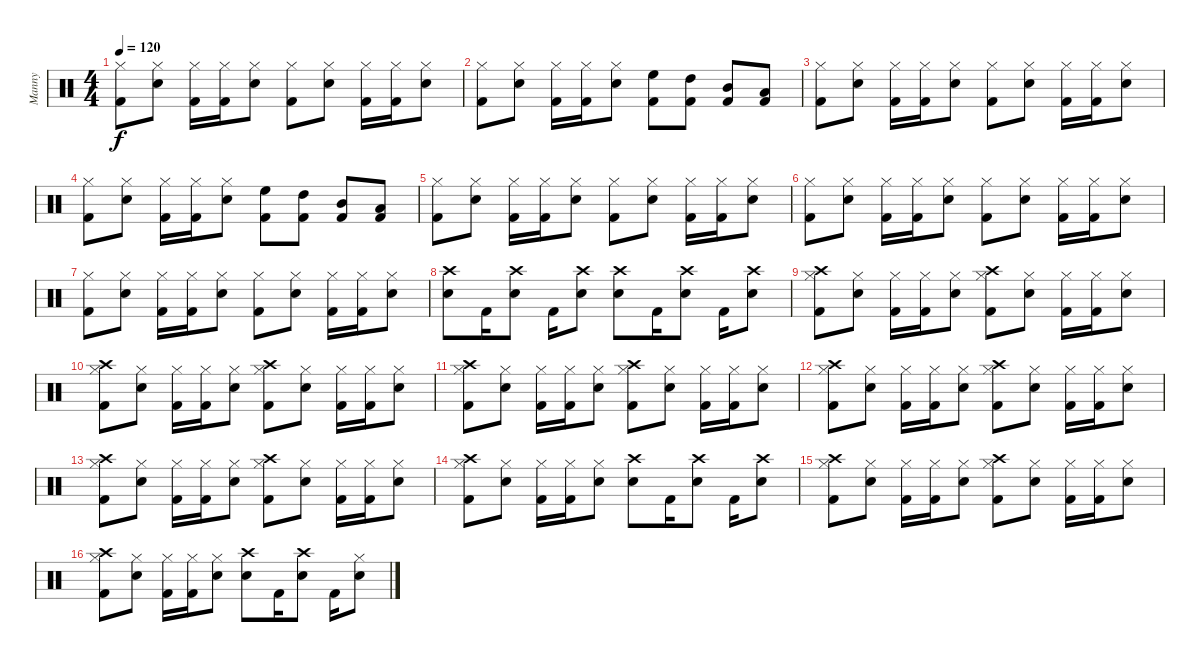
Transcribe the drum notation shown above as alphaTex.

\track ("Manny" "Manny") {instrument percussion}
\staff {score}
\articulation defaults
\ts (4 4)
\tempo 120
\clef neutral
\ks c
("Kick (hit) 2" "Hi-Hat (closed)").8{dy f} ("Snare (hit) 2" "Hi-Hat (closed)").8 ("Kick (hit) 2" "Hi-Hat (closed)").16 ("Kick (hit) 2" "Hi-Hat (closed)").16 ("Snare (hit) 2" "Hi-Hat (closed)").8 ("Kick (hit) 2" "Hi-Hat (closed)").8 ("Snare (hit) 2" "Hi-Hat (closed)").8 ("Kick (hit) 2" "Hi-Hat (closed)").16 ("Kick (hit) 2" "Hi-Hat (closed)").16 ("Snare (hit) 2" "Hi-Hat (closed)").8 |
("Kick (hit) 2" "Hi-Hat (closed)").8 ("Snare (hit) 2" "Hi-Hat (closed)").8 ("Kick (hit) 2" "Hi-Hat (closed)").16 ("Kick (hit) 2" "Hi-Hat (closed)").16 ("Snare (hit) 2" "Hi-Hat (closed)").8 ("Kick (hit) 2" "High Floor Tom (hit)").8 ("Kick (hit) 2" "High Tom (hit)").8 ("Kick (hit) 2" "Mid Tom (hit)").8 ("Kick (hit) 2" "Low Tom (hit)").8 |
("Kick (hit) 2" "Hi-Hat (closed)").8 ("Snare (hit) 2" "Hi-Hat (closed)").8 ("Kick (hit) 2" "Hi-Hat (closed)").16 ("Kick (hit) 2" "Hi-Hat (closed)").16 ("Snare (hit) 2" "Hi-Hat (closed)").8 ("Kick (hit) 2" "Hi-Hat (closed)").8 ("Snare (hit) 2" "Hi-Hat (closed)").8 ("Kick (hit) 2" "Hi-Hat (closed)").16 ("Kick (hit) 2" "Hi-Hat (closed)").16 ("Snare (hit) 2" "Hi-Hat (closed)").8 |
("Kick (hit) 2" "Hi-Hat (closed)").8 ("Snare (hit) 2" "Hi-Hat (closed)").8 ("Kick (hit) 2" "Hi-Hat (closed)").16 ("Kick (hit) 2" "Hi-Hat (closed)").16 ("Snare (hit) 2" "Hi-Hat (closed)").8 ("Kick (hit) 2" "High Floor Tom (hit)").8 ("Kick (hit) 2" "High Tom (hit)").8 ("Kick (hit) 2" "Mid Tom (hit)").8 ("Kick (hit) 2" "Low Tom (hit)").8 |
("Kick (hit) 2" "Hi-Hat (closed)").8 ("Snare (hit) 2" "Hi-Hat (closed)").8 ("Kick (hit) 2" "Hi-Hat (closed)").16 ("Kick (hit) 2" "Hi-Hat (closed)").16 ("Snare (hit) 2" "Hi-Hat (closed)").8 ("Kick (hit) 2" "Hi-Hat (closed)").8 ("Snare (hit) 2" "Hi-Hat (closed)").8 ("Kick (hit) 2" "Hi-Hat (closed)").16 ("Kick (hit) 2" "Hi-Hat (closed)").16 ("Snare (hit) 2" "Hi-Hat (closed)").8 |
("Kick (hit) 2" "Hi-Hat (closed)").8 ("Snare (hit) 2" "Hi-Hat (closed)").8 ("Kick (hit) 2" "Hi-Hat (closed)").16 ("Kick (hit) 2" "Hi-Hat (closed)").16 ("Snare (hit) 2" "Hi-Hat (closed)").8 ("Kick (hit) 2" "Hi-Hat (closed)").8 ("Snare (hit) 2" "Hi-Hat (closed)").8 ("Kick (hit) 2" "Hi-Hat (closed)").16 ("Kick (hit) 2" "Hi-Hat (closed)").16 ("Snare (hit) 2" "Hi-Hat (closed)").8 |
("Kick (hit) 2" "Hi-Hat (closed)").8 ("Snare (hit) 2" "Hi-Hat (closed)").8 ("Kick (hit) 2" "Hi-Hat (closed)").16 ("Kick (hit) 2" "Hi-Hat (closed)").16 ("Snare (hit) 2" "Hi-Hat (closed)").8 ("Kick (hit) 2" "Hi-Hat (closed)").8 ("Snare (hit) 2" "Hi-Hat (closed)").8 ("Kick (hit) 2" "Hi-Hat (closed)").16 ("Kick (hit) 2" "Hi-Hat (closed)").16 ("Snare (hit) 2" "Hi-Hat (closed)").8 |
("Snare (hit) 2" "Crash high (hit)").8 "Kick (hit) 2".16 ("Snare (hit) 2" "Crash high (hit)").8 "Kick (hit) 2".16 ("Snare (hit) 2" "Crash high (hit)").8 ("Snare (hit) 2" "Crash high (hit)").8 "Kick (hit) 2".16 ("Snare (hit) 2" "Crash high (hit)").8 "Kick (hit) 2".16 ("Snare (hit) 2" "Crash high (hit)").8 |
("Kick (hit) 2" "Crash high (hit)" "Hi-Hat (closed)").8 ("Snare (hit) 2" "Hi-Hat (closed)").8 ("Kick (hit) 2" "Hi-Hat (closed)").16 ("Kick (hit) 2" "Hi-Hat (closed)").16 ("Snare (hit) 2" "Hi-Hat (closed)").8 ("Kick (hit) 2" "Crash high (hit)" "Hi-Hat (closed)").8 ("Snare (hit) 2" "Hi-Hat (closed)").8 ("Kick (hit) 2" "Hi-Hat (closed)").16 ("Kick (hit) 2" "Hi-Hat (closed)").16 ("Snare (hit) 2" "Hi-Hat (closed)").8 |
("Kick (hit) 2" "Hi-Hat (closed)" "Crash high (hit)").8 ("Snare (hit) 2" "Hi-Hat (closed)").8 ("Kick (hit) 2" "Hi-Hat (closed)").16 ("Kick (hit) 2" "Hi-Hat (closed)").16 ("Snare (hit) 2" "Hi-Hat (closed)").8 ("Kick (hit) 2" "Hi-Hat (closed)" "Crash high (hit)").8 ("Snare (hit) 2" "Hi-Hat (closed)").8 ("Kick (hit) 2" "Hi-Hat (closed)").16 ("Kick (hit) 2" "Hi-Hat (closed)").16 ("Snare (hit) 2" "Hi-Hat (closed)").8 |
("Kick (hit) 2" "Crash high (hit)" "Hi-Hat (closed)").8 ("Snare (hit) 2" "Hi-Hat (closed)").8 ("Kick (hit) 2" "Hi-Hat (closed)").16 ("Kick (hit) 2" "Hi-Hat (closed)").16 ("Snare (hit) 2" "Hi-Hat (closed)").8 ("Kick (hit) 2" "Crash high (hit)" "Hi-Hat (closed)").8 ("Snare (hit) 2" "Hi-Hat (closed)").8 ("Kick (hit) 2" "Hi-Hat (closed)").16 ("Kick (hit) 2" "Hi-Hat (closed)").16 ("Snare (hit) 2" "Hi-Hat (closed)").8 |
("Kick (hit) 2" "Crash high (hit)" "Hi-Hat (closed)").8 ("Snare (hit) 2" "Hi-Hat (closed)").8 ("Kick (hit) 2" "Hi-Hat (closed)").16 ("Kick (hit) 2" "Hi-Hat (closed)").16 ("Snare (hit) 2" "Hi-Hat (closed)").8 ("Kick (hit) 2" "Crash high (hit)" "Hi-Hat (closed)").8 ("Snare (hit) 2" "Hi-Hat (closed)").8 ("Kick (hit) 2" "Hi-Hat (closed)").16 ("Kick (hit) 2" "Hi-Hat (closed)").16 ("Snare (hit) 2" "Hi-Hat (closed)").8 |
("Kick (hit) 2" "Crash high (hit)" "Hi-Hat (closed)").8 ("Snare (hit) 2" "Hi-Hat (closed)").8 ("Kick (hit) 2" "Hi-Hat (closed)").16 ("Kick (hit) 2" "Hi-Hat (closed)").16 ("Snare (hit) 2" "Hi-Hat (closed)").8 ("Kick (hit) 2" "Crash high (hit)" "Hi-Hat (closed)").8 ("Snare (hit) 2" "Hi-Hat (closed)").8 ("Kick (hit) 2" "Hi-Hat (closed)").16 ("Kick (hit) 2" "Hi-Hat (closed)").16 ("Snare (hit) 2" "Hi-Hat (closed)").8 |
("Kick (hit) 2" "Hi-Hat (closed)" "Crash high (hit)").8 ("Snare (hit) 2" "Hi-Hat (closed)").8 ("Kick (hit) 2" "Hi-Hat (closed)").16 ("Kick (hit) 2" "Hi-Hat (closed)").16 ("Snare (hit) 2" "Hi-Hat (closed)").8 ("Snare (hit) 2" "Crash high (hit)").8 "Kick (hit) 2".16 ("Snare (hit) 2" "Crash high (hit)").8 "Kick (hit) 2".16 ("Snare (hit) 2" "Crash high (hit)").8 |
("Kick (hit) 2" "Crash high (hit)" "Hi-Hat (closed)").8 ("Snare (hit) 2" "Hi-Hat (closed)").8 ("Kick (hit) 2" "Hi-Hat (closed)").16 ("Kick (hit) 2" "Hi-Hat (closed)").16 ("Snare (hit) 2" "Hi-Hat (closed)").8 ("Kick (hit) 2" "Crash high (hit)" "Hi-Hat (closed)").8 ("Snare (hit) 2" "Hi-Hat (closed)").8 ("Kick (hit) 2" "Hi-Hat (closed)").16 ("Kick (hit) 2" "Hi-Hat (closed)").16 ("Snare (hit) 2" "Hi-Hat (closed)").8 |
("Kick (hit) 2" "Crash high (hit)" "Hi-Hat (closed)").8 ("Snare (hit) 2" "Hi-Hat (closed)").8 ("Kick (hit) 2" "Hi-Hat (closed)").16 ("Kick (hit) 2" "Hi-Hat (closed)").16 ("Snare (hit) 2" "Hi-Hat (closed)").8 ("Snare (hit) 2" "Crash high (hit)").8 "Kick (hit) 2".16 ("Snare (hit) 2" "Crash high (hit)").8 "Kick (hit) 2".16 ("Snare (hit) 2" "Hi-Hat (closed)").8
